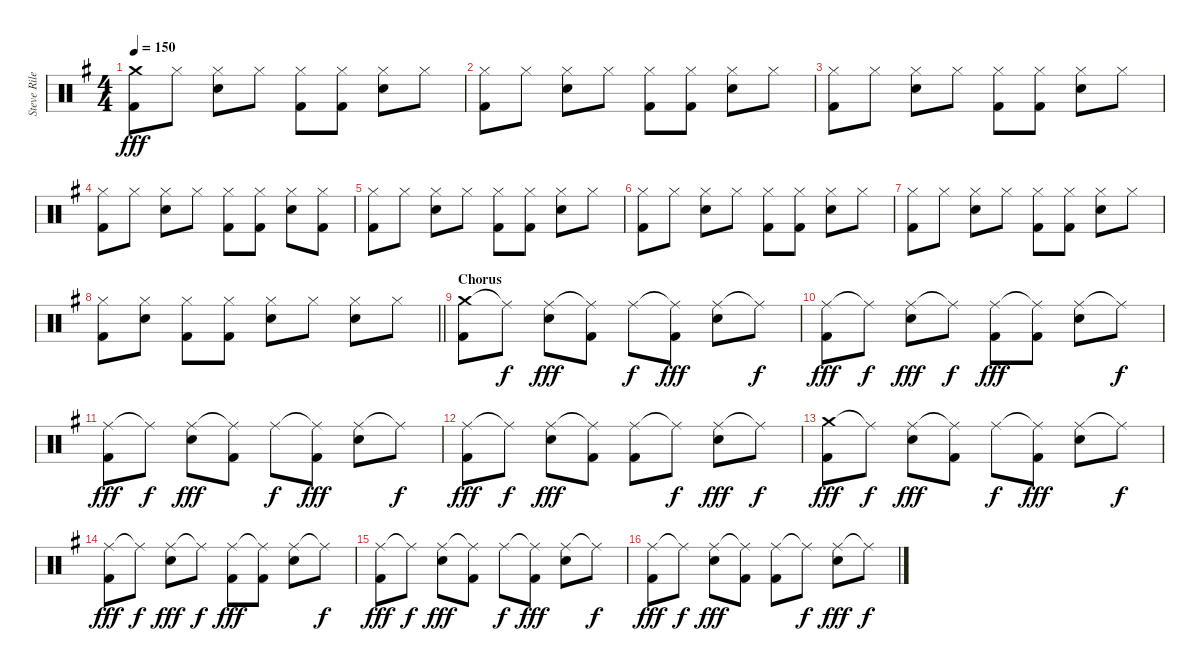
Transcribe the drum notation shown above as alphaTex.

\track ("Steve Riley - Drums" "Steve Rile") {instrument percussion}
\staff {score}
\articulation defaults
\ts (4 4)
\tempo 150
\clef neutral
\ks g
("Crash medium (hit)" "Kick (hit) 2").8{dy fff} "Hi-Hat (closed)".8 ("Hi-Hat (closed)" "Electric Snare (hit)").8 "Hi-Hat (closed)".8 ("Hi-Hat (closed)" "Kick (hit) 2").8 ("Hi-Hat (closed)" "Kick (hit) 2").8 ("Hi-Hat (closed)" "Electric Snare (hit)").8 "Hi-Hat (closed)".8 |
("Hi-Hat (closed)" "Kick (hit) 2").8 "Hi-Hat (closed)".8 ("Hi-Hat (closed)" "Electric Snare (hit)").8 "Hi-Hat (closed)".8 ("Hi-Hat (closed)" "Kick (hit) 2").8 ("Hi-Hat (closed)" "Kick (hit) 2").8 ("Hi-Hat (closed)" "Electric Snare (hit)").8 "Hi-Hat (closed)".8 |
("Hi-Hat (closed)" "Kick (hit) 2").8 "Hi-Hat (closed)".8 ("Hi-Hat (closed)" "Electric Snare (hit)").8 "Hi-Hat (closed)".8 ("Hi-Hat (closed)" "Kick (hit) 2").8 ("Hi-Hat (closed)" "Kick (hit) 2").8 ("Hi-Hat (closed)" "Electric Snare (hit)").8 "Hi-Hat (closed)".8 |
("Hi-Hat (closed)" "Kick (hit) 2").8 "Hi-Hat (closed)".8 ("Hi-Hat (closed)" "Electric Snare (hit)").8 "Hi-Hat (closed)".8 ("Hi-Hat (closed)" "Kick (hit) 2").8 ("Hi-Hat (closed)" "Kick (hit) 2").8 ("Hi-Hat (closed)" "Electric Snare (hit)").8 ("Hi-Hat (closed)" "Kick (hit) 2").8 |
("Hi-Hat (closed)" "Kick (hit) 2").8 "Hi-Hat (closed)".8 ("Hi-Hat (closed)" "Electric Snare (hit)").8 "Hi-Hat (closed)".8 ("Hi-Hat (closed)" "Kick (hit) 2").8 ("Hi-Hat (closed)" "Kick (hit) 2").8 ("Hi-Hat (closed)" "Electric Snare (hit)").8 "Hi-Hat (closed)".8 |
("Hi-Hat (closed)" "Kick (hit) 2").8 "Hi-Hat (closed)".8 ("Hi-Hat (closed)" "Electric Snare (hit)").8 "Hi-Hat (closed)".8 ("Hi-Hat (closed)" "Kick (hit) 2").8 ("Hi-Hat (closed)" "Kick (hit) 2").8 ("Hi-Hat (closed)" "Electric Snare (hit)").8 "Hi-Hat (closed)".8 |
("Hi-Hat (closed)" "Kick (hit) 2").8 "Hi-Hat (closed)".8 ("Hi-Hat (closed)" "Electric Snare (hit)").8 "Hi-Hat (closed)".8 ("Hi-Hat (closed)" "Kick (hit) 2").8 ("Hi-Hat (closed)" "Kick (hit) 2").8 ("Hi-Hat (closed)" "Electric Snare (hit)").8 "Hi-Hat (closed)".8 |
\barLineRight lightlight
("Hi-Hat (closed)" "Kick (hit) 2").8 ("Hi-Hat (closed)" "Electric Snare (hit)").8 ("Hi-Hat (closed)" "Kick (hit) 2").8 ("Hi-Hat (closed)" "Kick (hit) 2").8 ("Hi-Hat (closed)" "Electric Snare (hit)").8 "Hi-Hat (closed)".8 ("Hi-Hat (closed)" "Electric Snare (hit)").8 "Hi-Hat (closed)".8 |
\section ("" "Chorus")
("Crash medium (hit)" "Kick (hit) 2").8 "Ride (middle)"{t}.8{dy f} ("Ride (middle)" "Electric Snare (hit)").8{dy fff} ("Ride (middle)"{t} "Kick (hit) 2").8 "Ride (middle)".8{dy f} ("Ride (middle)"{t} "Kick (hit) 2").8{dy fff} ("Ride (middle)" "Electric Snare (hit)").8 "Ride (middle)"{t}.8{dy f} |
("Ride (middle)" "Kick (hit) 2").8{dy fff} "Ride (middle)"{t}.8{dy f} ("Ride (middle)" "Electric Snare (hit)").8{dy fff} "Ride (middle)"{t}.8{dy f} ("Ride (middle)" "Kick (hit) 2").8{dy fff} ("Ride (middle)"{t} "Kick (hit) 2").8 ("Ride (middle)" "Electric Snare (hit)").8 "Ride (middle)"{t}.8{dy f} |
("Ride (middle)" "Kick (hit) 2").8{dy fff} "Ride (middle)"{t}.8{dy f} ("Ride (middle)" "Electric Snare (hit)").8{dy fff} ("Ride (middle)"{t} "Kick (hit) 2").8 "Ride (middle)".8{dy f} ("Ride (middle)"{t} "Kick (hit) 2").8{dy fff} ("Ride (middle)" "Electric Snare (hit)").8 "Ride (middle)"{t}.8{dy f} |
("Ride (middle)" "Kick (hit) 2").8{dy fff} "Ride (middle)"{t}.8{dy f} ("Ride (middle)" "Electric Snare (hit)").8{dy fff} ("Ride (middle)"{t} "Kick (hit) 2").8 ("Ride (middle)" "Kick (hit) 2").8 "Ride (middle)"{t}.8{dy f} ("Ride (middle)" "Electric Snare (hit)").8{dy fff} "Ride (middle)"{t}.8{dy f} |
("Crash medium (hit)" "Kick (hit) 2").8{dy fff} "Ride (middle)"{t}.8{dy f} ("Ride (middle)" "Electric Snare (hit)").8{dy fff} ("Ride (middle)"{t} "Kick (hit) 2").8 "Ride (middle)".8{dy f} ("Ride (middle)"{t} "Kick (hit) 2").8{dy fff} ("Ride (middle)" "Electric Snare (hit)").8 "Ride (middle)"{t}.8{dy f} |
("Ride (middle)" "Kick (hit) 2").8{dy fff} "Ride (middle)"{t}.8{dy f} ("Ride (middle)" "Electric Snare (hit)").8{dy fff} "Ride (middle)"{t}.8{dy f} ("Ride (middle)" "Kick (hit) 2").8{dy fff} ("Ride (middle)"{t} "Kick (hit) 2").8 ("Ride (middle)" "Electric Snare (hit)").8 "Ride (middle)"{t}.8{dy f} |
("Ride (middle)" "Kick (hit) 2").8{dy fff} "Ride (middle)"{t}.8{dy f} ("Ride (middle)" "Electric Snare (hit)").8{dy fff} ("Ride (middle)"{t} "Kick (hit) 2").8 "Ride (middle)".8{dy f} ("Ride (middle)"{t} "Kick (hit) 2").8{dy fff} ("Ride (middle)" "Electric Snare (hit)").8 "Ride (middle)"{t}.8{dy f} |
("Ride (middle)" "Kick (hit) 2").8{dy fff} "Ride (middle)"{t}.8{dy f} ("Ride (middle)" "Electric Snare (hit)").8{dy fff} ("Ride (middle)"{t} "Kick (hit) 2").8 ("Ride (middle)" "Kick (hit) 2").8 "Ride (middle)"{t}.8{dy f} ("Ride (middle)" "Electric Snare (hit)").8{dy fff} "Ride (middle)"{t}.8{dy f}
